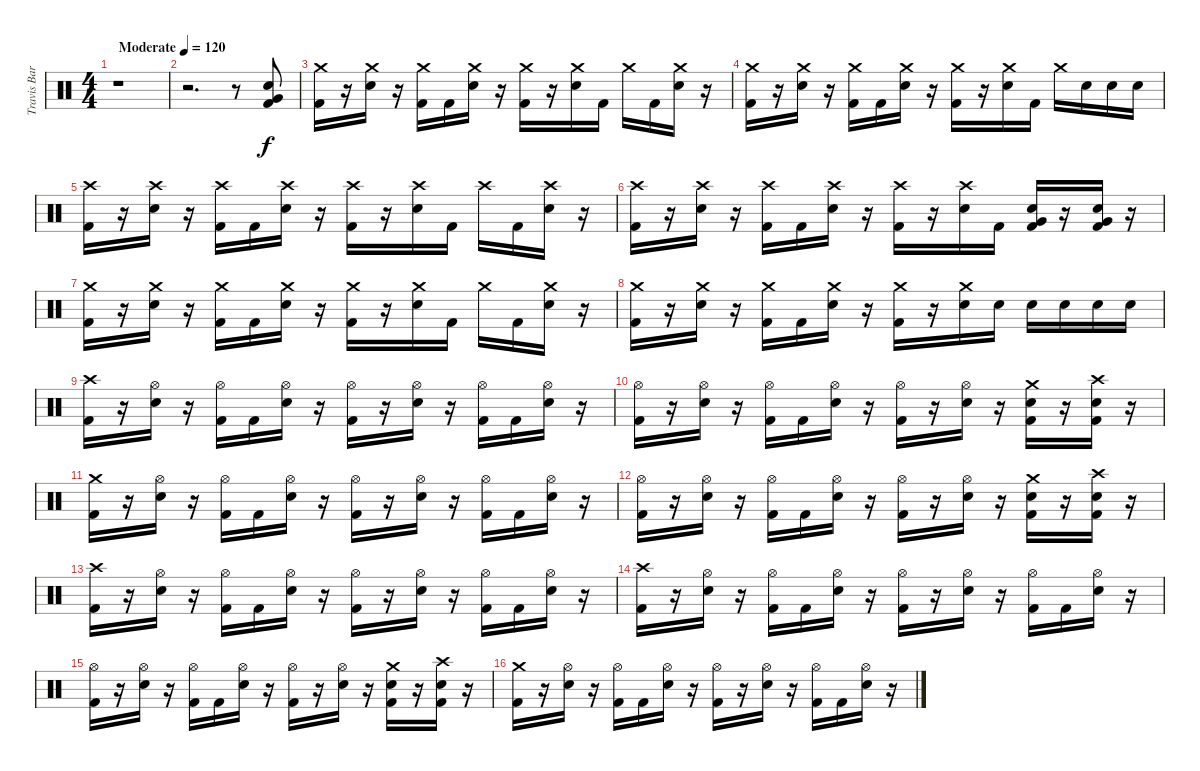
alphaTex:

\track ("Travis Barker Drums" "Travis Bar") {instrument percussion}
\staff {score}
\articulation defaults
\ts (4 4)
\tempo (120 "Moderate")
\clef neutral
\ks c
r.1{dy f} |
r.2{d} r.8 ("Very Low Tom (hit)" "Snare (hit) 2" "Kick (hit) 2").8 |
("Crash medium (hit)" "Kick (hit) 2").16 r.16 ("Crash medium (hit)" "Snare (hit) 2").16 r.16 ("Crash medium (hit)" "Kick (hit) 2").16 "Kick (hit) 2".16 ("Crash medium (hit)" "Snare (hit) 2").16 r.16 ("Crash medium (hit)" "Kick (hit) 2").16 r.16 ("Crash medium (hit)" "Snare (hit) 2").16 "Kick (hit) 2".16 "Crash medium (hit)".16 "Kick (hit) 2".16 ("Crash medium (hit)" "Snare (hit) 2").16 r.16 |
("Crash medium (hit)" "Kick (hit) 2").16 r.16 ("Crash medium (hit)" "Snare (hit) 2").16 r.16 ("Crash medium (hit)" "Kick (hit) 2").16 "Kick (hit) 2".16 ("Crash medium (hit)" "Snare (hit) 2").16 r.16 ("Crash medium (hit)" "Kick (hit) 2").16 r.16 ("Crash medium (hit)" "Snare (hit) 2").16 "Kick (hit) 2".16 "Crash medium (hit)".16 "Snare (hit) 2".16 "Snare (hit) 2".16 "Snare (hit) 2".16 |
("Crash high (hit)" "Kick (hit) 2").16 r.16 ("Crash high (hit)" "Snare (hit) 2").16 r.16 ("Crash high (hit)" "Kick (hit) 2").16 "Kick (hit) 2".16 ("Crash high (hit)" "Snare (hit) 2").16 r.16 ("Crash high (hit)" "Kick (hit) 2").16 r.16 ("Crash high (hit)" "Snare (hit) 2").16 "Kick (hit) 2".16 "Crash high (hit)".16 "Kick (hit) 2".16 ("Crash high (hit)" "Snare (hit) 2").16 r.16 |
("Crash high (hit)" "Kick (hit) 2").16 r.16 ("Crash high (hit)" "Snare (hit) 2").16 r.16 ("Crash high (hit)" "Kick (hit) 2").16 "Kick (hit) 2".16 ("Crash high (hit)" "Snare (hit) 2").16 r.16 ("Crash high (hit)" "Kick (hit) 2").16 r.16 ("Crash high (hit)" "Snare (hit) 2").16 "Kick (hit) 2".16 ("Very Low Tom (hit)" "Snare (hit) 2" "Kick (hit) 2").16 r.16 ("Very Low Tom (hit)" "Snare (hit) 2" "Kick (hit) 2").16 r.16 |
("Crash medium (hit)" "Kick (hit) 2").16 r.16 ("Crash medium (hit)" "Snare (hit) 2").16 r.16 ("Crash medium (hit)" "Kick (hit) 2").16 "Kick (hit) 2".16 ("Crash medium (hit)" "Snare (hit) 2").16 r.16 ("Crash medium (hit)" "Kick (hit) 2").16 r.16 ("Crash medium (hit)" "Snare (hit) 2").16 "Kick (hit) 2".16 "Crash medium (hit)".16 "Kick (hit) 2".16 ("Crash medium (hit)" "Snare (hit) 2").16 r.16 |
("Crash medium (hit)" "Kick (hit) 2").16 r.16 ("Crash medium (hit)" "Snare (hit) 2").16 r.16 ("Crash medium (hit)" "Kick (hit) 2").16 "Kick (hit) 2".16 ("Crash medium (hit)" "Snare (hit) 2").16 r.16 ("Crash medium (hit)" "Kick (hit) 2").16 r.16 ("Crash medium (hit)" "Snare (hit) 2").16 "Snare (hit) 2".16 "Snare (hit) 2".16 "Snare (hit) 2".16 "Snare (hit) 2".16 "Snare (hit) 2".16 |
("Crash high (hit)" "Kick (hit) 2").16 r.16 ("Hi-Hat (open)" "Snare (hit) 2").16 r.16 ("Hi-Hat (open)" "Kick (hit) 2").16 "Kick (hit) 2".16 ("Hi-Hat (open)" "Snare (hit) 2").16 r.16 ("Hi-Hat (open)" "Kick (hit) 2").16 r.16 ("Hi-Hat (open)" "Snare (hit) 2").16 r.16 ("Hi-Hat (open)" "Kick (hit) 2").16 "Kick (hit) 2".16 ("Hi-Hat (open)" "Snare (hit) 2").16 r.16 |
("Hi-Hat (open)" "Kick (hit) 2").16 r.16 ("Hi-Hat (open)" "Snare (hit) 2").16 r.16 ("Hi-Hat (open)" "Kick (hit) 2").16 "Kick (hit) 2".16 ("Hi-Hat (open)" "Snare (hit) 2").16 r.16 ("Hi-Hat (open)" "Kick (hit) 2").16 r.16 ("Hi-Hat (open)" "Snare (hit) 2").16 r.16 ("Crash medium (hit)" "Snare (hit) 2" "Kick (hit) 2").16 r.16 ("Crash high (hit)" "Snare (hit) 2" "Kick (hit) 2").16 r.16 |
("Crash medium (hit)" "Kick (hit) 2").16 r.16 ("Hi-Hat (open)" "Snare (hit) 2").16 r.16 ("Hi-Hat (open)" "Kick (hit) 2").16 "Kick (hit) 2".16 ("Hi-Hat (open)" "Snare (hit) 2").16 r.16 ("Hi-Hat (open)" "Kick (hit) 2").16 r.16 ("Hi-Hat (open)" "Snare (hit) 2").16 r.16 ("Hi-Hat (open)" "Kick (hit) 2").16 "Kick (hit) 2".16 ("Hi-Hat (open)" "Snare (hit) 2").16 r.16 |
("Hi-Hat (open)" "Kick (hit) 2").16 r.16 ("Hi-Hat (open)" "Snare (hit) 2").16 r.16 ("Hi-Hat (open)" "Kick (hit) 2").16 "Kick (hit) 2".16 ("Hi-Hat (open)" "Snare (hit) 2").16 r.16 ("Hi-Hat (open)" "Kick (hit) 2").16 r.16 ("Hi-Hat (open)" "Snare (hit) 2").16 r.16 ("Crash medium (hit)" "Snare (hit) 2" "Kick (hit) 2").16 r.16 ("Crash high (hit)" "Snare (hit) 2" "Kick (hit) 2").16 r.16 |
("Crash high (hit)" "Kick (hit) 2").16 r.16 ("Hi-Hat (open)" "Snare (hit) 2").16 r.16 ("Hi-Hat (open)" "Kick (hit) 2").16 "Kick (hit) 2".16 ("Hi-Hat (open)" "Snare (hit) 2").16 r.16 ("Hi-Hat (open)" "Kick (hit) 2").16 r.16 ("Hi-Hat (open)" "Snare (hit) 2").16 r.16 ("Hi-Hat (open)" "Kick (hit) 2").16 "Kick (hit) 2".16 ("Hi-Hat (open)" "Snare (hit) 2").16 r.16 |
("Crash high (hit)" "Kick (hit) 2").16 r.16 ("Hi-Hat (open)" "Snare (hit) 2").16 r.16 ("Hi-Hat (open)" "Kick (hit) 2").16 "Kick (hit) 2".16 ("Hi-Hat (open)" "Snare (hit) 2").16 r.16 ("Hi-Hat (open)" "Kick (hit) 2").16 r.16 ("Hi-Hat (open)" "Snare (hit) 2").16 r.16 ("Hi-Hat (open)" "Kick (hit) 2").16 "Kick (hit) 2".16 ("Hi-Hat (open)" "Snare (hit) 2").16 r.16 |
("Hi-Hat (open)" "Kick (hit) 2").16 r.16 ("Hi-Hat (open)" "Snare (hit) 2").16 r.16 ("Hi-Hat (open)" "Kick (hit) 2").16 "Kick (hit) 2".16 ("Hi-Hat (open)" "Snare (hit) 2").16 r.16 ("Hi-Hat (open)" "Kick (hit) 2").16 r.16 ("Hi-Hat (open)" "Snare (hit) 2").16 r.16 ("Crash medium (hit)" "Snare (hit) 2" "Kick (hit) 2").16 r.16 ("Crash high (hit)" "Snare (hit) 2" "Kick (hit) 2").16 r.16 |
("Crash medium (hit)" "Kick (hit) 2").16 r.16 ("Hi-Hat (open)" "Snare (hit) 2").16 r.16 ("Hi-Hat (open)" "Kick (hit) 2").16 "Kick (hit) 2".16 ("Hi-Hat (open)" "Snare (hit) 2").16 r.16 ("Hi-Hat (open)" "Kick (hit) 2").16 r.16 ("Hi-Hat (open)" "Snare (hit) 2").16 r.16 ("Hi-Hat (open)" "Kick (hit) 2").16 "Kick (hit) 2".16 ("Hi-Hat (open)" "Snare (hit) 2").16 r.16
